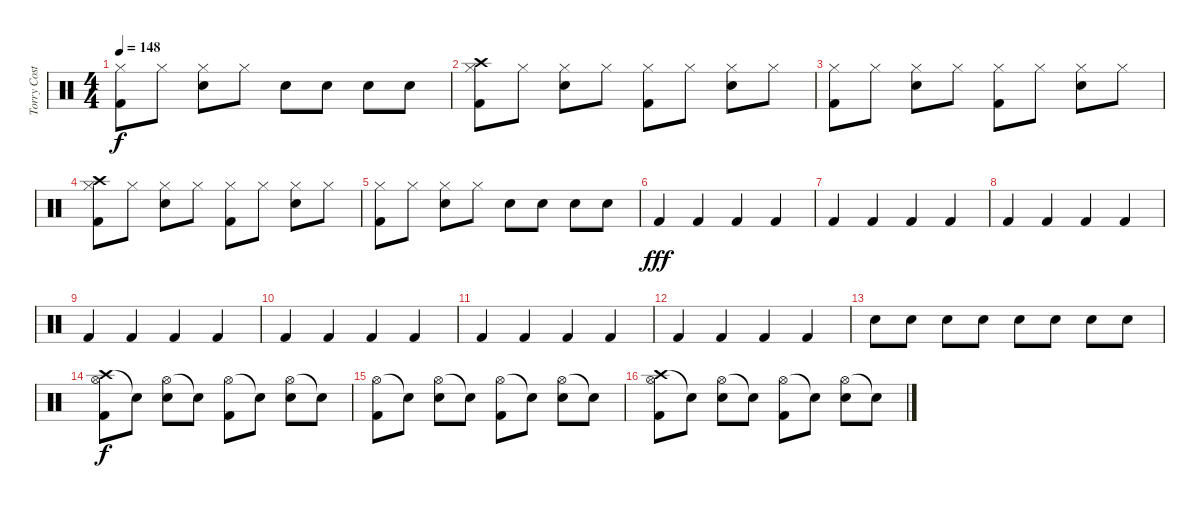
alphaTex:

\track ("Torry Costellano" "Torry Cost") {instrument percussion bank 127}
\staff {score}
\articulation defaults
\ts (4 4)
\tempo 148
\clef neutral
\ks c
("Hi-Hat (closed)" "Kick (hit) 2").8{dy f} "Hi-Hat (closed)".8 ("Hi-Hat (closed)" "Electric Snare (hit)").8 "Hi-Hat (closed)".8 "Electric Snare (hit)".8 "Electric Snare (hit)".8 "Electric Snare (hit)".8 "Electric Snare (hit)".8 |
("Crash high (hit)" "Hi-Hat (closed)" "Kick (hit) 2").8 "Hi-Hat (closed)".8 ("Hi-Hat (closed)" "Electric Snare (hit)").8 "Hi-Hat (closed)".8 ("Hi-Hat (closed)" "Kick (hit) 2").8 "Hi-Hat (closed)".8 ("Hi-Hat (closed)" "Electric Snare (hit)").8 "Hi-Hat (closed)".8 |
("Hi-Hat (closed)" "Kick (hit) 2").8 "Hi-Hat (closed)".8 ("Hi-Hat (closed)" "Electric Snare (hit)").8 "Hi-Hat (closed)".8 ("Hi-Hat (closed)" "Kick (hit) 2").8 "Hi-Hat (closed)".8 ("Hi-Hat (closed)" "Electric Snare (hit)").8 "Hi-Hat (closed)".8 |
("Crash high (hit)" "Hi-Hat (closed)" "Kick (hit) 2").8 "Hi-Hat (closed)".8 ("Hi-Hat (closed)" "Electric Snare (hit)").8 "Hi-Hat (closed)".8 ("Hi-Hat (closed)" "Kick (hit) 2").8 "Hi-Hat (closed)".8 ("Hi-Hat (closed)" "Electric Snare (hit)").8 "Hi-Hat (closed)".8 |
("Hi-Hat (closed)" "Kick (hit) 2").8 "Hi-Hat (closed)".8 ("Hi-Hat (closed)" "Electric Snare (hit)").8 "Hi-Hat (closed)".8 "Electric Snare (hit)".8 "Electric Snare (hit)".8 "Electric Snare (hit)".8 "Electric Snare (hit)".8 |
"Kick (hit) 2".4{dy fff} "Kick (hit) 2".4 "Kick (hit) 2".4 "Kick (hit) 2".4 |
"Kick (hit) 2".4 "Kick (hit) 2".4 "Kick (hit) 2".4 "Kick (hit) 2".4 |
"Kick (hit) 2".4 "Kick (hit) 2".4 "Kick (hit) 2".4 "Kick (hit) 2".4 |
"Kick (hit) 2".4 "Kick (hit) 2".4 "Kick (hit) 2".4 "Kick (hit) 2".4 |
"Kick (hit) 2".4 "Kick (hit) 2".4 "Kick (hit) 2".4 "Kick (hit) 2".4 |
"Kick (hit) 2".4 "Kick (hit) 2".4 "Kick (hit) 2".4 "Kick (hit) 2".4 |
"Kick (hit) 2".4 "Kick (hit) 2".4 "Kick (hit) 2".4 "Kick (hit) 2".4 |
"Electric Snare (hit)".8 "Electric Snare (hit)".8 "Electric Snare (hit)".8 "Electric Snare (hit)".8 "Electric Snare (hit)".8 "Electric Snare (hit)".8 "Electric Snare (hit)".8 "Electric Snare (hit)".8 |
("Crash high (hit)" "Hi-Hat (open)" "Kick (hit) 2").8{dy f} "Snare (hit)"{t}.8 ("Hi-Hat (open)" "Electric Snare (hit)").8 "Snare (hit)"{t}.8 ("Hi-Hat (open)" "Kick (hit) 2").8 "Snare (hit)"{t}.8 ("Hi-Hat (open)" "Electric Snare (hit)").8 "Snare (hit)"{t}.8 |
("Hi-Hat (open)" "Kick (hit) 2").8 "Snare (hit)"{t}.8 ("Hi-Hat (open)" "Electric Snare (hit)").8 "Snare (hit)"{t}.8 ("Hi-Hat (open)" "Kick (hit) 2").8 "Snare (hit)"{t}.8 ("Hi-Hat (open)" "Electric Snare (hit)").8 "Snare (hit)"{t}.8 |
("Crash high (hit)" "Hi-Hat (open)" "Kick (hit) 2").8 "Snare (hit)"{t}.8 ("Hi-Hat (open)" "Electric Snare (hit)").8 "Snare (hit)"{t}.8 ("Hi-Hat (open)" "Kick (hit) 2").8 "Snare (hit)"{t}.8 ("Hi-Hat (open)" "Electric Snare (hit)").8 "Snare (hit)"{t}.8
